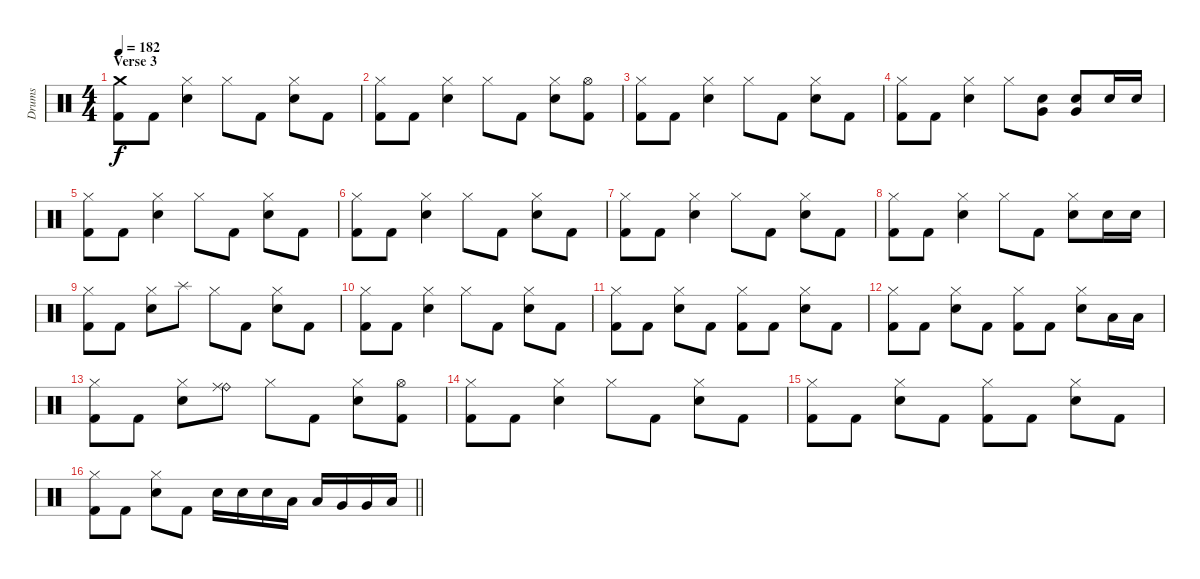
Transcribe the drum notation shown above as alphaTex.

\track ("Drums" "Drums") {instrument percussion}
\staff {score}
\articulation defaults
\ts (4 4)
\section ("" "Verse 3")
\tempo 182
\clef neutral
\ks c
("Crash medium (hit)" "Kick (hit) 2").8{dy f} "Kick (hit) 2".8 ("Hi-Hat (closed)" "Electric Snare (hit)").4 "Hi-Hat (closed)".8 "Kick (hit) 2".8 ("Hi-Hat (closed)" "Electric Snare (hit)").8 "Kick (hit) 2".8 |
("Hi-Hat (closed)" "Kick (hit) 2").8 "Kick (hit) 2".8 ("Hi-Hat (closed)" "Electric Snare (hit)").4 "Hi-Hat (closed)".8 "Kick (hit) 2".8 ("Hi-Hat (closed)" "Electric Snare (hit)").8 ("Hi-Hat (open)" "Kick (hit) 2").8 |
("Hi-Hat (closed)" "Kick (hit) 2").8 "Kick (hit) 2".8 ("Hi-Hat (closed)" "Electric Snare (hit)").4 "Hi-Hat (closed)".8 "Kick (hit) 2".8 ("Hi-Hat (closed)" "Electric Snare (hit)").8 "Kick (hit) 2".8 |
("Hi-Hat (closed)" "Kick (hit) 2").8 "Kick (hit) 2".8 ("Hi-Hat (closed)" "Electric Snare (hit)").4 "Hi-Hat (closed)".8 ("Very Low Tom (hit)" "Electric Snare (hit)").8 ("Very Low Tom (hit)" "Electric Snare (hit)").8 "Electric Snare (hit)".16 "Electric Snare (hit)".16 |
("Hi-Hat (closed)" "Kick (hit) 2").8 "Kick (hit) 2".8 ("Hi-Hat (closed)" "Electric Snare (hit)").4 "Hi-Hat (closed)".8 "Kick (hit) 2".8 ("Hi-Hat (closed)" "Electric Snare (hit)").8 "Kick (hit) 2".8 |
("Hi-Hat (closed)" "Kick (hit) 2").8 "Kick (hit) 2".8 ("Hi-Hat (closed)" "Electric Snare (hit)").4 "Hi-Hat (closed)".8 "Kick (hit) 2".8 ("Hi-Hat (closed)" "Electric Snare (hit)").8 "Kick (hit) 2".8 |
("Hi-Hat (closed)" "Kick (hit) 2").8 "Kick (hit) 2".8 ("Hi-Hat (closed)" "Electric Snare (hit)").4 "Hi-Hat (closed)".8 "Kick (hit) 2".8 ("Hi-Hat (closed)" "Electric Snare (hit)").8 "Kick (hit) 2".8 |
("Hi-Hat (closed)" "Kick (hit) 2").8 "Kick (hit) 2".8 ("Hi-Hat (closed)" "Electric Snare (hit)").4 "Hi-Hat (closed)".8 "Kick (hit) 2".8 ("Hi-Hat (closed)" "Electric Snare (hit)").8 "Electric Snare (hit)".16 "Electric Snare (hit)".16 |
("Hi-Hat (closed)" "Kick (hit) 2").8 "Kick (hit) 2".8 ("Hi-Hat (closed)" "Electric Snare (hit)").8 "Splash (hit)".8 "Hi-Hat (closed)".8 "Kick (hit) 2".8 ("Hi-Hat (closed)" "Electric Snare (hit)").8 "Kick (hit) 2".8 |
("Hi-Hat (closed)" "Kick (hit) 2").8 "Kick (hit) 2".8 ("Hi-Hat (closed)" "Electric Snare (hit)").4 "Hi-Hat (closed)".8 "Kick (hit) 2".8 ("Hi-Hat (closed)" "Electric Snare (hit)").8 "Kick (hit) 2".8 |
("Hi-Hat (closed)" "Kick (hit) 2").8 "Kick (hit) 2".8 ("Hi-Hat (closed)" "Electric Snare (hit)").8 "Kick (hit) 2".8 ("Hi-Hat (closed)" "Kick (hit) 2").8 "Kick (hit) 2".8 ("Hi-Hat (closed)" "Electric Snare (hit)").8 "Kick (hit) 2".8 |
("Hi-Hat (closed)" "Kick (hit) 2").8 "Kick (hit) 2".8 ("Hi-Hat (closed)" "Electric Snare (hit)").8 "Kick (hit) 2".8 ("Hi-Hat (closed)" "Kick (hit) 2").8 "Kick (hit) 2".8 ("Hi-Hat (closed)" "Electric Snare (hit)").8 "Low Tom (hit)".16 "Low Tom (hit)".16 |
("Hi-Hat (closed)" "Kick (hit) 2").8 "Kick (hit) 2".8 ("Hi-Hat (closed)" "Electric Snare (hit)").8 ("Ride (bell)" "Ride (middle)").8 "Hi-Hat (closed)".8 "Kick (hit) 2".8 ("Hi-Hat (closed)" "Electric Snare (hit)").8 ("Hi-Hat (open)" "Kick (hit) 2").8 |
("Hi-Hat (closed)" "Kick (hit) 2").8 "Kick (hit) 2".8 ("Hi-Hat (closed)" "Electric Snare (hit)").4 "Hi-Hat (closed)".8 "Kick (hit) 2".8 ("Hi-Hat (closed)" "Electric Snare (hit)").8 "Kick (hit) 2".8 |
("Hi-Hat (closed)" "Kick (hit) 2").8 "Kick (hit) 2".8 ("Hi-Hat (closed)" "Electric Snare (hit)").8 "Kick (hit) 2".8 ("Hi-Hat (closed)" "Kick (hit) 2").8 "Kick (hit) 2".8 ("Hi-Hat (closed)" "Electric Snare (hit)").8 "Kick (hit) 2".8 |
\barLineRight lightlight
("Hi-Hat (closed)" "Kick (hit) 2").8 "Kick (hit) 2".8 ("Hi-Hat (closed)" "Electric Snare (hit)").8 "Kick (hit) 2".8 "Electric Snare (hit)".16 "Electric Snare (hit)".16 "Electric Snare (hit)".16 "Low Tom (hit)".16 "Low Tom (hit)".16 "Very Low Tom (hit)".16 "Very Low Tom (hit)".16 "Low Floor Tom (hit)".16
